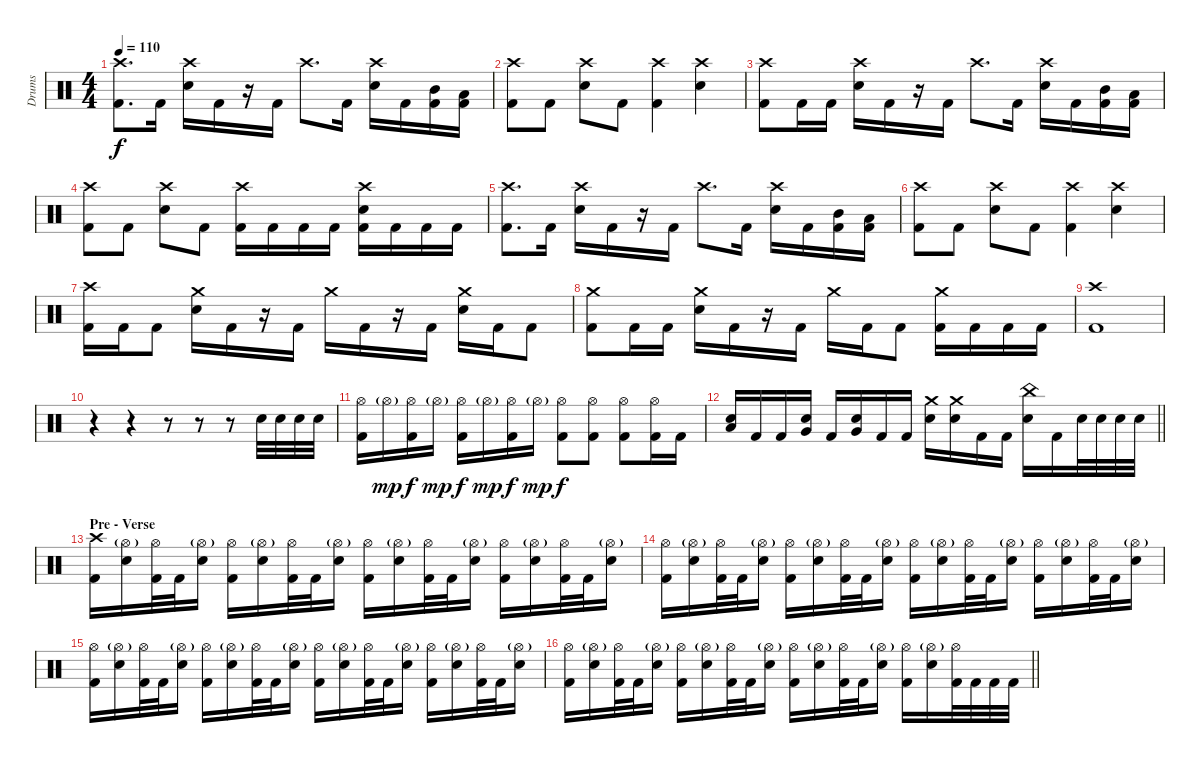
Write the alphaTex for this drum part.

\track ("Drums" "Drums") {instrument percussion}
\staff {score}
\articulation defaults
\ts (4 4)
\tempo 110
\clef neutral
\ks c
("Crash high (hit)" "Kick (hit) 2").8{d dy f} "Kick (hit) 2".16 ("Crash high (hit)" "Electric Snare (hit)").16 "Kick (hit) 2".16 r.16 "Kick (hit) 2".16 "Crash high (hit)".8{d} "Kick (hit) 2".16 ("Crash high (hit)" "Electric Snare (hit)").16 "Kick (hit) 2".16 ("Mid Tom (hit)" "Kick (hit) 2").16 ("Low Tom (hit)" "Kick (hit) 2").16 |
("Crash high (hit)" "Kick (hit) 2").8 "Kick (hit) 2".8 ("Crash high (hit)" "Electric Snare (hit)").8 "Kick (hit) 2".8 ("Crash high (hit)" "Kick (hit) 2").4 ("Crash high (hit)" "Electric Snare (hit)").4 |
("Crash high (hit)" "Kick (hit) 2").8 "Kick (hit) 2".16 "Kick (hit) 2".16 ("Crash high (hit)" "Electric Snare (hit)").16 "Kick (hit) 2".16 r.16 "Kick (hit) 2".16 "Crash high (hit)".8{d} "Kick (hit) 2".16 ("Crash high (hit)" "Electric Snare (hit)").16 "Kick (hit) 2".16 ("Mid Tom (hit)" "Kick (hit) 2").16 ("Low Tom (hit)" "Kick (hit) 2").16 |
("Crash high (hit)" "Kick (hit) 2").8 "Kick (hit) 2".8 ("Crash high (hit)" "Electric Snare (hit)").8 "Kick (hit) 2".8 ("Crash high (hit)" "Kick (hit) 2").16 "Kick (hit) 2".16 "Kick (hit) 2".16 "Kick (hit) 2".16 ("Crash high (hit)" "Electric Snare (hit)" "Kick (hit) 2").16 "Kick (hit) 2".16 "Kick (hit) 2".16 "Kick (hit) 2".16 |
("Crash high (hit)" "Kick (hit) 2").8{d} "Kick (hit) 2".16 ("Crash high (hit)" "Electric Snare (hit)").16 "Kick (hit) 2".16 r.16 "Kick (hit) 2".16 "Crash high (hit)".8{d} "Kick (hit) 2".16 ("Crash high (hit)" "Electric Snare (hit)").16 "Kick (hit) 2".16 ("Mid Tom (hit)" "Kick (hit) 2").16 ("Low Tom (hit)" "Kick (hit) 2").16 |
("Crash high (hit)" "Kick (hit) 2").8 "Kick (hit) 2".8 ("Crash high (hit)" "Electric Snare (hit)").8 "Kick (hit) 2".8 ("Crash high (hit)" "Kick (hit) 2").4 ("Crash high (hit)" "Electric Snare (hit)").4 |
("Crash high (hit)" "Kick (hit) 2").16 "Kick (hit) 2".16 "Kick (hit) 2".8 ("Crash medium (hit)" "Electric Snare (hit)").16 "Kick (hit) 2".16 r.16 "Kick (hit) 2".16 "Crash medium (hit)".16 "Kick (hit) 2".16 r.16 "Kick (hit) 2".16 ("Crash medium (hit)" "Electric Snare (hit)").16 "Kick (hit) 2".16 "Kick (hit) 2".8 |
("Crash medium (hit)" "Kick (hit) 2").8 "Kick (hit) 2".16 "Kick (hit) 2".16 ("Crash medium (hit)" "Electric Snare (hit)").16 "Kick (hit) 2".16 r.16 "Kick (hit) 2".16 "Crash medium (hit)".16 "Kick (hit) 2".16 "Kick (hit) 2".8 ("Crash medium (hit)" "Kick (hit) 2").16 "Kick (hit) 2".16 "Kick (hit) 2".16 "Kick (hit) 2".16 |
("Crash high (hit)" "Kick (hit) 2").1 |
r.4 r.4 r.8 r.8 r.8 "Electric Snare (hit)".32 "Electric Snare (hit)".32 "Electric Snare (hit)".32 "Electric Snare (hit)".32 |
("Hi-Hat (open)" "Kick (hit) 2").16 "Hi-Hat (open)"{g}.16{dy mp} ("Hi-Hat (open)" "Kick (hit) 2").16{dy f} "Hi-Hat (open)"{g}.16{dy mp} ("Hi-Hat (open)" "Kick (hit) 2").16{dy f} "Hi-Hat (open)"{g}.16{dy mp} ("Hi-Hat (open)" "Kick (hit) 2").16{dy f} "Hi-Hat (open)"{g}.16{dy mp} ("Hi-Hat (open)" "Kick (hit) 2").8{dy f} ("Hi-Hat (open)" "Kick (hit) 2").8 ("Hi-Hat (open)" "Kick (hit) 2").8 ("Hi-Hat (open)" "Kick (hit) 2").16 "Kick (hit) 2".16 |
\barLineRight lightlight
("Low Tom (hit)" "Electric Snare (hit)").16 "Kick (hit) 2".16 "Kick (hit) 2".16 ("Very Low Tom (hit)" "Electric Snare (hit)").16 "Kick (hit) 2".16 ("Very Low Tom (hit)" "Electric Snare (hit)").16 "Kick (hit) 2".16 "Kick (hit) 2".16 ("Crash medium (hit)" "Electric Snare (hit)").16 ("Crash medium (hit)" "Electric Snare (hit)").16 "Kick (hit) 2".16 "Kick (hit) 2".16 ("China (hit)" "Electric Snare (hit)").16 "Kick (hit) 2".16 "Electric Snare (hit)".32 "Electric Snare (hit)".32 "Electric Snare (hit)".32 "Electric Snare (hit)".32 |
\section ("" "Pre - Verse")
("Crash high (hit)" "Kick (hit) 2").16 ("Hi-Hat (open)"{g} "Electric Snare (hit)").16 ("Hi-Hat (open)" "Kick (hit) 2").32 "Kick (hit) 2".32 ("Hi-Hat (open)"{g} "Electric Snare (hit)").16 ("Hi-Hat (open)" "Kick (hit) 2").16 ("Hi-Hat (open)"{g} "Electric Snare (hit)").16 ("Hi-Hat (open)" "Kick (hit) 2").32 "Kick (hit) 2".32 ("Hi-Hat (open)"{g} "Electric Snare (hit)").16 ("Hi-Hat (open)" "Kick (hit) 2").16 ("Hi-Hat (open)"{g} "Electric Snare (hit)").16 ("Hi-Hat (open)" "Kick (hit) 2").32 "Kick (hit) 2".32 ("Hi-Hat (open)"{g} "Electric Snare (hit)").16 ("Hi-Hat (open)" "Kick (hit) 2").16 ("Hi-Hat (open)"{g} "Electric Snare (hit)").16 ("Hi-Hat (open)" "Kick (hit) 2").32 "Kick (hit) 2".32 ("Hi-Hat (open)"{g} "Electric Snare (hit)").16 |
("Hi-Hat (open)" "Kick (hit) 2").16 ("Hi-Hat (open)"{g} "Electric Snare (hit)").16 ("Hi-Hat (open)" "Kick (hit) 2").32 "Kick (hit) 2".32 ("Hi-Hat (open)"{g} "Electric Snare (hit)").16 ("Hi-Hat (open)" "Kick (hit) 2").16 ("Hi-Hat (open)"{g} "Electric Snare (hit)").16 ("Hi-Hat (open)" "Kick (hit) 2").32 "Kick (hit) 2".32 ("Hi-Hat (open)"{g} "Electric Snare (hit)").16 ("Hi-Hat (open)" "Kick (hit) 2").16 ("Hi-Hat (open)"{g} "Electric Snare (hit)").16 ("Hi-Hat (open)" "Kick (hit) 2").32 "Kick (hit) 2".32 ("Hi-Hat (open)"{g} "Electric Snare (hit)").16 ("Hi-Hat (open)" "Kick (hit) 2").16 ("Hi-Hat (open)"{g} "Electric Snare (hit)").16 ("Hi-Hat (open)" "Kick (hit) 2").32 "Kick (hit) 2".32 ("Hi-Hat (open)"{g} "Electric Snare (hit)").16 |
("Hi-Hat (open)" "Kick (hit) 2").16 ("Hi-Hat (open)"{g} "Electric Snare (hit)").16 ("Hi-Hat (open)" "Kick (hit) 2").32 "Kick (hit) 2".32 ("Hi-Hat (open)"{g} "Electric Snare (hit)").16 ("Hi-Hat (open)" "Kick (hit) 2").16 ("Hi-Hat (open)"{g} "Electric Snare (hit)").16 ("Hi-Hat (open)" "Kick (hit) 2").32 "Kick (hit) 2".32 ("Hi-Hat (open)"{g} "Electric Snare (hit)").16 ("Hi-Hat (open)" "Kick (hit) 2").16 ("Hi-Hat (open)"{g} "Electric Snare (hit)").16 ("Hi-Hat (open)" "Kick (hit) 2").32 "Kick (hit) 2".32 ("Hi-Hat (open)"{g} "Electric Snare (hit)").16 ("Hi-Hat (open)" "Kick (hit) 2").16 ("Hi-Hat (open)"{g} "Electric Snare (hit)").16 ("Hi-Hat (open)" "Kick (hit) 2").32 "Kick (hit) 2".32 ("Hi-Hat (open)"{g} "Electric Snare (hit)").16 |
\barLineRight lightlight
("Hi-Hat (open)" "Kick (hit) 2").16 ("Hi-Hat (open)"{g} "Electric Snare (hit)").16 ("Hi-Hat (open)" "Kick (hit) 2").32 "Kick (hit) 2".32 ("Hi-Hat (open)"{g} "Electric Snare (hit)").16 ("Hi-Hat (open)" "Kick (hit) 2").16 ("Hi-Hat (open)"{g} "Electric Snare (hit)").16 ("Hi-Hat (open)" "Kick (hit) 2").32 "Kick (hit) 2".32 ("Hi-Hat (open)"{g} "Electric Snare (hit)").16 ("Hi-Hat (open)" "Kick (hit) 2").16 ("Hi-Hat (open)"{g} "Electric Snare (hit)").16 ("Hi-Hat (open)" "Kick (hit) 2").32 "Kick (hit) 2".32 ("Hi-Hat (open)"{g} "Electric Snare (hit)").16 ("Hi-Hat (open)" "Kick (hit) 2").16 ("Hi-Hat (open)"{g} "Electric Snare (hit)").16 ("Hi-Hat (open)" "Kick (hit) 2").32 "Kick (hit) 2".32 "Kick (hit) 2".32 "Kick (hit) 2".32
